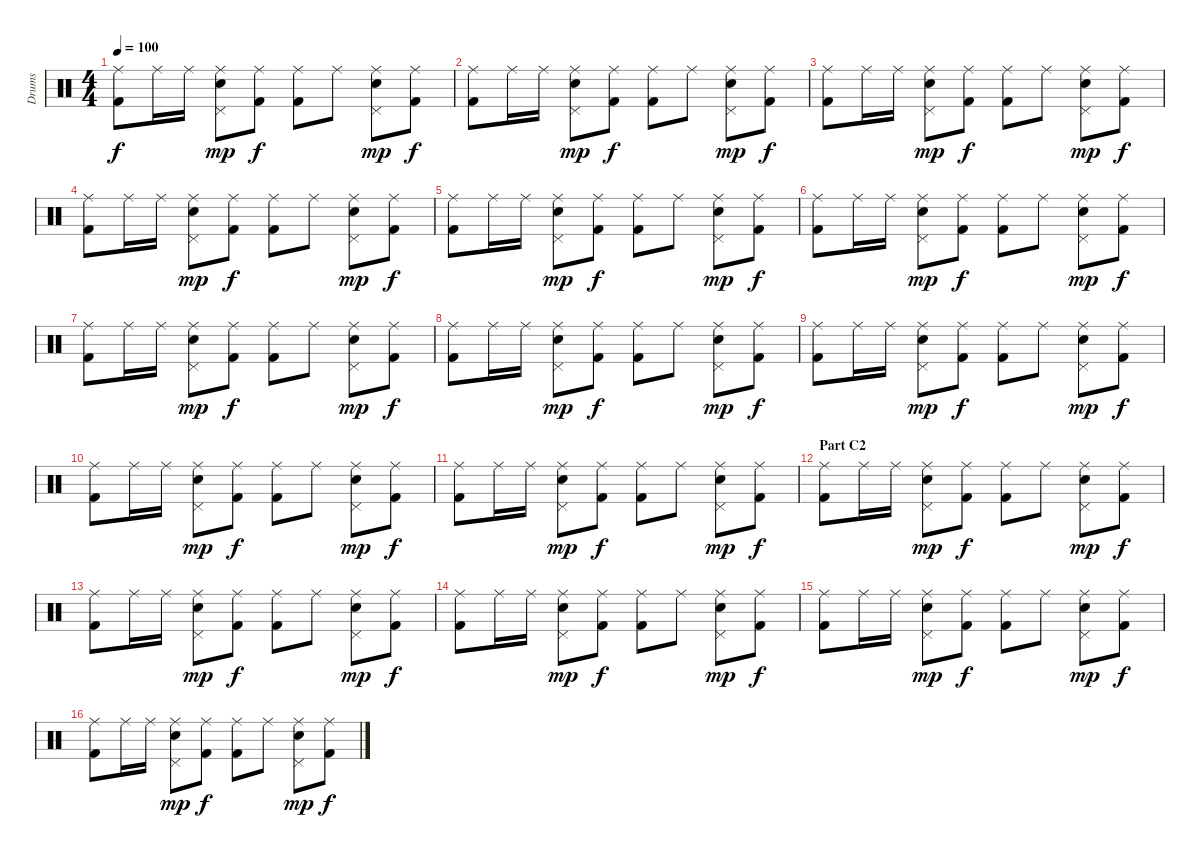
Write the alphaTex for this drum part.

\track ("Drums" "Drums") {instrument percussion}
\staff {score}
\articulation defaults
\ts (4 4)
\tempo 100
\clef neutral
\ks c
("Ride (middle)" "Kick (hit) 2").8{dy f} "Ride (middle)".16 "Ride (middle)".16 ("Ride (middle)" "Pedal Hi-Hat (hit)" "Electric Snare (hit)").8{dy mp} ("Ride (middle)" "Kick (hit) 2").8{dy f} ("Ride (middle)" "Kick (hit) 2").8 "Ride (middle)".8 ("Ride (middle)" "Pedal Hi-Hat (hit)" "Electric Snare (hit)").8{dy mp} ("Ride (middle)" "Kick (hit) 2").8{dy f} |
("Ride (middle)" "Kick (hit) 2").8 "Ride (middle)".16 "Ride (middle)".16 ("Ride (middle)" "Pedal Hi-Hat (hit)" "Electric Snare (hit)").8{dy mp} ("Ride (middle)" "Kick (hit) 2").8{dy f} ("Ride (middle)" "Kick (hit) 2").8 "Ride (middle)".8 ("Ride (middle)" "Pedal Hi-Hat (hit)" "Electric Snare (hit)").8{dy mp} ("Ride (middle)" "Kick (hit) 2").8{dy f} |
("Ride (middle)" "Kick (hit) 2").8 "Ride (middle)".16 "Ride (middle)".16 ("Ride (middle)" "Pedal Hi-Hat (hit)" "Electric Snare (hit)").8{dy mp} ("Ride (middle)" "Kick (hit) 2").8{dy f} ("Ride (middle)" "Kick (hit) 2").8 "Ride (middle)".8 ("Ride (middle)" "Pedal Hi-Hat (hit)" "Electric Snare (hit)").8{dy mp} ("Ride (middle)" "Kick (hit) 2").8{dy f} |
("Ride (middle)" "Kick (hit) 2").8 "Ride (middle)".16 "Ride (middle)".16 ("Ride (middle)" "Pedal Hi-Hat (hit)" "Electric Snare (hit)").8{dy mp} ("Ride (middle)" "Kick (hit) 2").8{dy f} ("Ride (middle)" "Kick (hit) 2").8 "Ride (middle)".8 ("Ride (middle)" "Pedal Hi-Hat (hit)" "Electric Snare (hit)").8{dy mp} ("Ride (middle)" "Kick (hit) 2").8{dy f} |
("Ride (middle)" "Kick (hit) 2").8 "Ride (middle)".16 "Ride (middle)".16 ("Ride (middle)" "Pedal Hi-Hat (hit)" "Electric Snare (hit)").8{dy mp} ("Ride (middle)" "Kick (hit) 2").8{dy f} ("Ride (middle)" "Kick (hit) 2").8 "Ride (middle)".8 ("Ride (middle)" "Pedal Hi-Hat (hit)" "Electric Snare (hit)").8{dy mp} ("Ride (middle)" "Kick (hit) 2").8{dy f} |
("Ride (middle)" "Kick (hit) 2").8 "Ride (middle)".16 "Ride (middle)".16 ("Ride (middle)" "Pedal Hi-Hat (hit)" "Electric Snare (hit)").8{dy mp} ("Ride (middle)" "Kick (hit) 2").8{dy f} ("Ride (middle)" "Kick (hit) 2").8 "Ride (middle)".8 ("Ride (middle)" "Pedal Hi-Hat (hit)" "Electric Snare (hit)").8{dy mp} ("Ride (middle)" "Kick (hit) 2").8{dy f} |
("Ride (middle)" "Kick (hit) 2").8 "Ride (middle)".16 "Ride (middle)".16 ("Ride (middle)" "Pedal Hi-Hat (hit)" "Electric Snare (hit)").8{dy mp} ("Ride (middle)" "Kick (hit) 2").8{dy f} ("Ride (middle)" "Kick (hit) 2").8 "Ride (middle)".8 ("Ride (middle)" "Pedal Hi-Hat (hit)" "Electric Snare (hit)").8{dy mp} ("Ride (middle)" "Kick (hit) 2").8{dy f} |
("Ride (middle)" "Kick (hit) 2").8 "Ride (middle)".16 "Ride (middle)".16 ("Ride (middle)" "Pedal Hi-Hat (hit)" "Electric Snare (hit)").8{dy mp} ("Ride (middle)" "Kick (hit) 2").8{dy f} ("Ride (middle)" "Kick (hit) 2").8 "Ride (middle)".8 ("Ride (middle)" "Pedal Hi-Hat (hit)" "Electric Snare (hit)").8{dy mp} ("Ride (middle)" "Kick (hit) 2").8{dy f} |
("Ride (middle)" "Kick (hit) 2").8 "Ride (middle)".16 "Ride (middle)".16 ("Ride (middle)" "Pedal Hi-Hat (hit)" "Electric Snare (hit)").8{dy mp} ("Ride (middle)" "Kick (hit) 2").8{dy f} ("Ride (middle)" "Kick (hit) 2").8 "Ride (middle)".8 ("Ride (middle)" "Pedal Hi-Hat (hit)" "Electric Snare (hit)").8{dy mp} ("Ride (middle)" "Kick (hit) 2").8{dy f} |
("Ride (middle)" "Kick (hit) 2").8 "Ride (middle)".16 "Ride (middle)".16 ("Ride (middle)" "Pedal Hi-Hat (hit)" "Electric Snare (hit)").8{dy mp} ("Ride (middle)" "Kick (hit) 2").8{dy f} ("Ride (middle)" "Kick (hit) 2").8 "Ride (middle)".8 ("Ride (middle)" "Pedal Hi-Hat (hit)" "Electric Snare (hit)").8{dy mp} ("Ride (middle)" "Kick (hit) 2").8{dy f} |
("Ride (middle)" "Kick (hit) 2").8 "Ride (middle)".16 "Ride (middle)".16 ("Ride (middle)" "Pedal Hi-Hat (hit)" "Electric Snare (hit)").8{dy mp} ("Ride (middle)" "Kick (hit) 2").8{dy f} ("Ride (middle)" "Kick (hit) 2").8 "Ride (middle)".8 ("Ride (middle)" "Pedal Hi-Hat (hit)" "Electric Snare (hit)").8{dy mp} ("Ride (middle)" "Kick (hit) 2").8{dy f} |
\section ("" "Part C2")
("Ride (middle)" "Kick (hit) 2").8 "Ride (middle)".16 "Ride (middle)".16 ("Ride (middle)" "Pedal Hi-Hat (hit)" "Electric Snare (hit)").8{dy mp} ("Ride (middle)" "Kick (hit) 2").8{dy f} ("Ride (middle)" "Kick (hit) 2").8 "Ride (middle)".8 ("Ride (middle)" "Pedal Hi-Hat (hit)" "Electric Snare (hit)").8{dy mp} ("Ride (middle)" "Kick (hit) 2").8{dy f} |
("Ride (middle)" "Kick (hit) 2").8 "Ride (middle)".16 "Ride (middle)".16 ("Ride (middle)" "Pedal Hi-Hat (hit)" "Electric Snare (hit)").8{dy mp} ("Ride (middle)" "Kick (hit) 2").8{dy f} ("Ride (middle)" "Kick (hit) 2").8 "Ride (middle)".8 ("Ride (middle)" "Pedal Hi-Hat (hit)" "Electric Snare (hit)").8{dy mp} ("Ride (middle)" "Kick (hit) 2").8{dy f} |
("Ride (middle)" "Kick (hit) 2").8 "Ride (middle)".16 "Ride (middle)".16 ("Ride (middle)" "Pedal Hi-Hat (hit)" "Electric Snare (hit)").8{dy mp} ("Ride (middle)" "Kick (hit) 2").8{dy f} ("Ride (middle)" "Kick (hit) 2").8 "Ride (middle)".8 ("Ride (middle)" "Pedal Hi-Hat (hit)" "Electric Snare (hit)").8{dy mp} ("Ride (middle)" "Kick (hit) 2").8{dy f} |
("Ride (middle)" "Kick (hit) 2").8 "Ride (middle)".16 "Ride (middle)".16 ("Ride (middle)" "Pedal Hi-Hat (hit)" "Electric Snare (hit)").8{dy mp} ("Ride (middle)" "Kick (hit) 2").8{dy f} ("Ride (middle)" "Kick (hit) 2").8 "Ride (middle)".8 ("Ride (middle)" "Pedal Hi-Hat (hit)" "Electric Snare (hit)").8{dy mp} ("Ride (middle)" "Kick (hit) 2").8{dy f} |
("Ride (middle)" "Kick (hit) 2").8 "Ride (middle)".16 "Ride (middle)".16 ("Ride (middle)" "Pedal Hi-Hat (hit)" "Electric Snare (hit)").8{dy mp} ("Ride (middle)" "Kick (hit) 2").8{dy f} ("Ride (middle)" "Kick (hit) 2").8 "Ride (middle)".8 ("Ride (middle)" "Pedal Hi-Hat (hit)" "Electric Snare (hit)").8{dy mp} ("Ride (middle)" "Kick (hit) 2").8{dy f}
